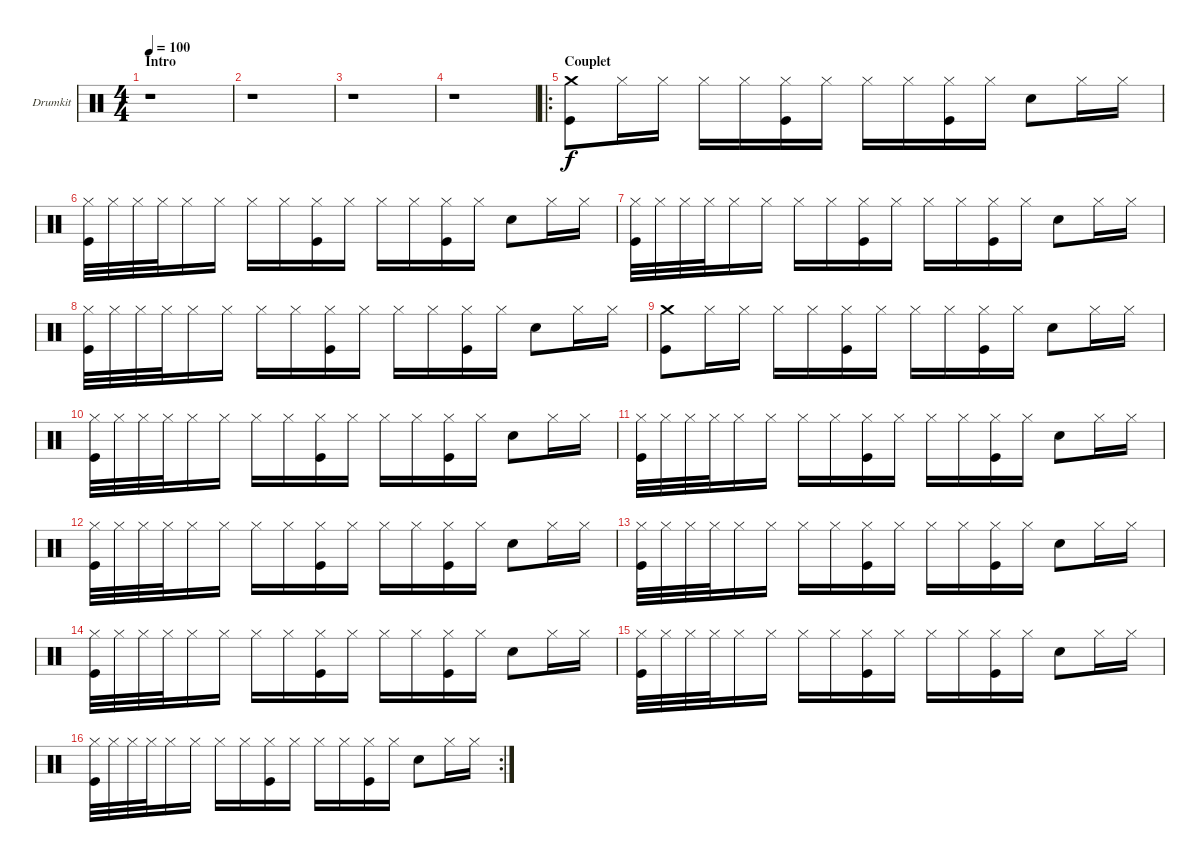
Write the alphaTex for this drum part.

\bracketExtendMode groupsimilarinstruments
\firstSystemTrackNameOrientation horizontal
\otherSystemsTrackNameOrientation horizontal
\track ("Drumkit" "Drumkit") {instrument percussion}
\staff {score}
\articulation defaults
\ts (4 4)
\section ("" "Intro")
\tempo 100
\clef neutral
\ks c
r.1{dy f} |
r.1 |
r.1 |
r.1 |
\ro
\section ("" "Couplet")
("Crash medium (hit)" "Kick (hit)").8 "Hi-Hat (closed)".16 "Hi-Hat (closed)".16 "Hi-Hat (closed)".16 "Hi-Hat (closed)".16 ("Hi-Hat (closed)" "Kick (hit)").16 "Hi-Hat (closed)".16 "Hi-Hat (closed)".16 "Hi-Hat (closed)".16 ("Hi-Hat (closed)" "Kick (hit)").16 "Hi-Hat (closed)".16 "Snare (hit) 2".8 "Hi-Hat (closed)".16 "Hi-Hat (closed)".16 |
("Hi-Hat (closed)" "Kick (hit)").32 "Hi-Hat (closed)".32 "Hi-Hat (closed)".32 "Hi-Hat (closed)".32 "Hi-Hat (closed)".16 "Hi-Hat (closed)".16 "Hi-Hat (closed)".16 "Hi-Hat (closed)".16 ("Hi-Hat (closed)" "Kick (hit)").16 "Hi-Hat (closed)".16 "Hi-Hat (closed)".16 "Hi-Hat (closed)".16 ("Hi-Hat (closed)" "Kick (hit)").16 "Hi-Hat (closed)".16 "Snare (hit) 2".8 "Hi-Hat (closed)".16 "Hi-Hat (closed)".16 |
("Hi-Hat (closed)" "Kick (hit)").32 "Hi-Hat (closed)".32 "Hi-Hat (closed)".32 "Hi-Hat (closed)".32 "Hi-Hat (closed)".16 "Hi-Hat (closed)".16 "Hi-Hat (closed)".16 "Hi-Hat (closed)".16 ("Hi-Hat (closed)" "Kick (hit)").16 "Hi-Hat (closed)".16 "Hi-Hat (closed)".16 "Hi-Hat (closed)".16 ("Hi-Hat (closed)" "Kick (hit)").16 "Hi-Hat (closed)".16 "Snare (hit) 2".8 "Hi-Hat (closed)".16 "Hi-Hat (closed)".16 |
("Hi-Hat (closed)" "Kick (hit)").32 "Hi-Hat (closed)".32 "Hi-Hat (closed)".32 "Hi-Hat (closed)".32 "Hi-Hat (closed)".16 "Hi-Hat (closed)".16 "Hi-Hat (closed)".16 "Hi-Hat (closed)".16 ("Hi-Hat (closed)" "Kick (hit)").16 "Hi-Hat (closed)".16 "Hi-Hat (closed)".16 "Hi-Hat (closed)".16 ("Hi-Hat (closed)" "Kick (hit)").16 "Hi-Hat (closed)".16 "Snare (hit) 2".8 "Hi-Hat (closed)".16 "Hi-Hat (closed)".16 |
("Crash medium (hit)" "Kick (hit)").8 "Hi-Hat (closed)".16 "Hi-Hat (closed)".16 "Hi-Hat (closed)".16 "Hi-Hat (closed)".16 ("Hi-Hat (closed)" "Kick (hit)").16 "Hi-Hat (closed)".16 "Hi-Hat (closed)".16 "Hi-Hat (closed)".16 ("Hi-Hat (closed)" "Kick (hit)").16 "Hi-Hat (closed)".16 "Snare (hit) 2".8 "Hi-Hat (closed)".16 "Hi-Hat (closed)".16 |
("Hi-Hat (closed)" "Kick (hit)").32 "Hi-Hat (closed)".32 "Hi-Hat (closed)".32 "Hi-Hat (closed)".32 "Hi-Hat (closed)".16 "Hi-Hat (closed)".16 "Hi-Hat (closed)".16 "Hi-Hat (closed)".16 ("Hi-Hat (closed)" "Kick (hit)").16 "Hi-Hat (closed)".16 "Hi-Hat (closed)".16 "Hi-Hat (closed)".16 ("Hi-Hat (closed)" "Kick (hit)").16 "Hi-Hat (closed)".16 "Snare (hit) 2".8 "Hi-Hat (closed)".16 "Hi-Hat (closed)".16 |
("Hi-Hat (closed)" "Kick (hit)").32 "Hi-Hat (closed)".32 "Hi-Hat (closed)".32 "Hi-Hat (closed)".32 "Hi-Hat (closed)".16 "Hi-Hat (closed)".16 "Hi-Hat (closed)".16 "Hi-Hat (closed)".16 ("Hi-Hat (closed)" "Kick (hit)").16 "Hi-Hat (closed)".16 "Hi-Hat (closed)".16 "Hi-Hat (closed)".16 ("Hi-Hat (closed)" "Kick (hit)").16 "Hi-Hat (closed)".16 "Snare (hit) 2".8 "Hi-Hat (closed)".16 "Hi-Hat (closed)".16 |
("Hi-Hat (closed)" "Kick (hit)").32 "Hi-Hat (closed)".32 "Hi-Hat (closed)".32 "Hi-Hat (closed)".32 "Hi-Hat (closed)".16 "Hi-Hat (closed)".16 "Hi-Hat (closed)".16 "Hi-Hat (closed)".16 ("Hi-Hat (closed)" "Kick (hit)").16 "Hi-Hat (closed)".16 "Hi-Hat (closed)".16 "Hi-Hat (closed)".16 ("Hi-Hat (closed)" "Kick (hit)").16 "Hi-Hat (closed)".16 "Snare (hit) 2".8 "Hi-Hat (closed)".16 "Hi-Hat (closed)".16 |
("Hi-Hat (closed)" "Kick (hit)").32 "Hi-Hat (closed)".32 "Hi-Hat (closed)".32 "Hi-Hat (closed)".32 "Hi-Hat (closed)".16 "Hi-Hat (closed)".16 "Hi-Hat (closed)".16 "Hi-Hat (closed)".16 ("Hi-Hat (closed)" "Kick (hit)").16 "Hi-Hat (closed)".16 "Hi-Hat (closed)".16 "Hi-Hat (closed)".16 ("Hi-Hat (closed)" "Kick (hit)").16 "Hi-Hat (closed)".16 "Snare (hit) 2".8 "Hi-Hat (closed)".16 "Hi-Hat (closed)".16 |
("Hi-Hat (closed)" "Kick (hit)").32 "Hi-Hat (closed)".32 "Hi-Hat (closed)".32 "Hi-Hat (closed)".32 "Hi-Hat (closed)".16 "Hi-Hat (closed)".16 "Hi-Hat (closed)".16 "Hi-Hat (closed)".16 ("Hi-Hat (closed)" "Kick (hit)").16 "Hi-Hat (closed)".16 "Hi-Hat (closed)".16 "Hi-Hat (closed)".16 ("Hi-Hat (closed)" "Kick (hit)").16 "Hi-Hat (closed)".16 "Snare (hit) 2".8 "Hi-Hat (closed)".16 "Hi-Hat (closed)".16 |
("Hi-Hat (closed)" "Kick (hit)").32 "Hi-Hat (closed)".32 "Hi-Hat (closed)".32 "Hi-Hat (closed)".32 "Hi-Hat (closed)".16 "Hi-Hat (closed)".16 "Hi-Hat (closed)".16 "Hi-Hat (closed)".16 ("Hi-Hat (closed)" "Kick (hit)").16 "Hi-Hat (closed)".16 "Hi-Hat (closed)".16 "Hi-Hat (closed)".16 ("Hi-Hat (closed)" "Kick (hit)").16 "Hi-Hat (closed)".16 "Snare (hit) 2".8 "Hi-Hat (closed)".16 "Hi-Hat (closed)".16 |
\rc 2
("Hi-Hat (closed)" "Kick (hit)").32 "Hi-Hat (closed)".32 "Hi-Hat (closed)".32 "Hi-Hat (closed)".32 "Hi-Hat (closed)".16 "Hi-Hat (closed)".16 "Hi-Hat (closed)".16 "Hi-Hat (closed)".16 ("Hi-Hat (closed)" "Kick (hit)").16 "Hi-Hat (closed)".16 "Hi-Hat (closed)".16 "Hi-Hat (closed)".16 ("Hi-Hat (closed)" "Kick (hit)").16 "Hi-Hat (closed)".16 "Snare (hit) 2".8 "Hi-Hat (closed)".16 "Hi-Hat (closed)".16
